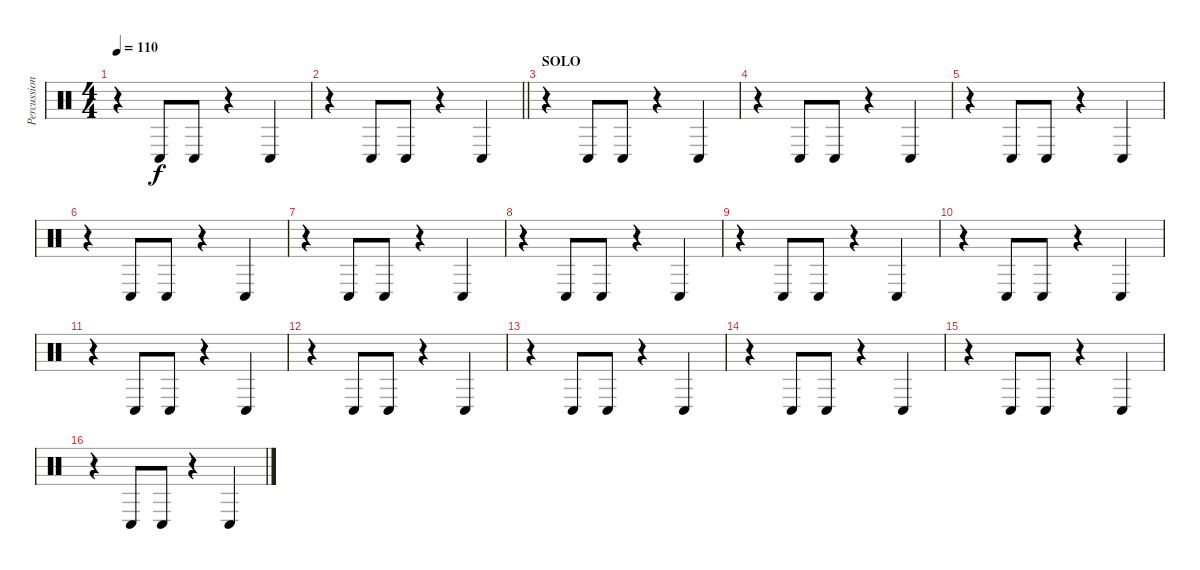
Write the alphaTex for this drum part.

\track ("Percussion" "Percussion") {instrument percussion}
\staff {score}
\articulation defaults
\ts (4 4)
\tempo 110
\clef neutral
\ks c
r.4{dy f} "Conga low (hit)".8 "Conga low (hit)".8 r.4 "Conga low (hit)".4 |
\barLineRight lightlight
r.4 "Conga low (hit)".8 "Conga low (hit)".8 r.4 "Conga low (hit)".4 |
\section ("" "SOLO")
r.4 "Conga low (hit)".8 "Conga low (hit)".8 r.4 "Conga low (hit)".4 |
r.4 "Conga low (hit)".8 "Conga low (hit)".8 r.4 "Conga low (hit)".4 |
r.4 "Conga low (hit)".8 "Conga low (hit)".8 r.4 "Conga low (hit)".4 |
r.4 "Conga low (hit)".8 "Conga low (hit)".8 r.4 "Conga low (hit)".4 |
r.4 "Conga low (hit)".8 "Conga low (hit)".8 r.4 "Conga low (hit)".4 |
r.4 "Conga low (hit)".8 "Conga low (hit)".8 r.4 "Conga low (hit)".4 |
r.4 "Conga low (hit)".8 "Conga low (hit)".8 r.4 "Conga low (hit)".4 |
r.4 "Conga low (hit)".8 "Conga low (hit)".8 r.4 "Conga low (hit)".4 |
r.4 "Conga low (hit)".8 "Conga low (hit)".8 r.4 "Conga low (hit)".4 |
r.4 "Conga low (hit)".8 "Conga low (hit)".8 r.4 "Conga low (hit)".4 |
r.4 "Conga low (hit)".8 "Conga low (hit)".8 r.4 "Conga low (hit)".4 |
r.4 "Conga low (hit)".8 "Conga low (hit)".8 r.4 "Conga low (hit)".4 |
r.4 "Conga low (hit)".8 "Conga low (hit)".8 r.4 "Conga low (hit)".4 |
r.4 "Conga low (hit)".8 "Conga low (hit)".8 r.4 "Conga low (hit)".4
